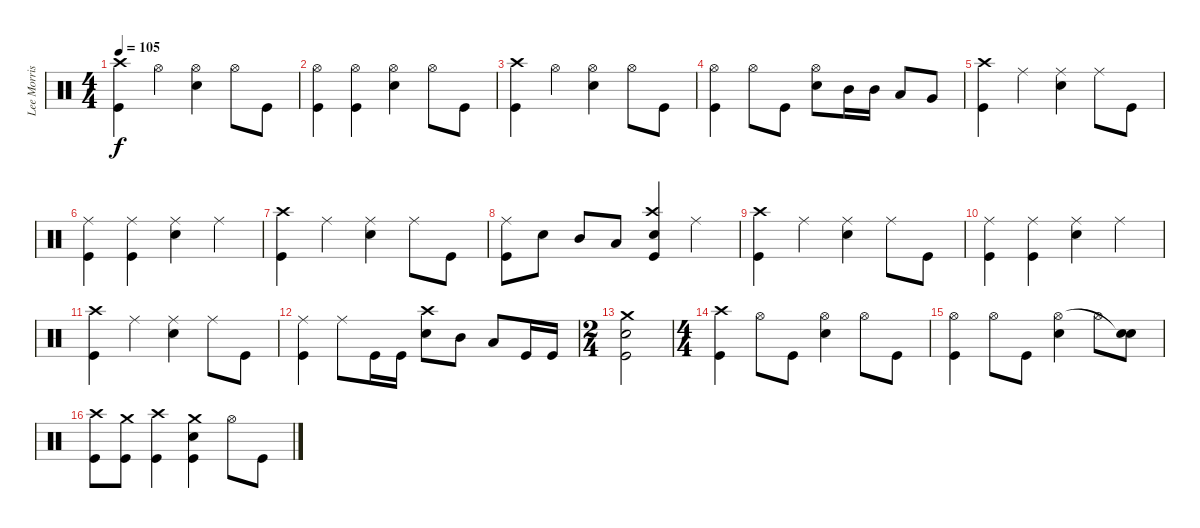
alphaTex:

\track ("Lee Morris" "Lee Morris") {instrument percussion}
\staff {score}
\articulation defaults
\ts (4 4)
\tempo 105
\clef neutral
\ks c
("Kick (hit)" "Crash high (hit)").4{dy f} "Hi-Hat (open)".4 ("Snare (hit) 2" "Hi-Hat (open)").4 "Hi-Hat (open)".8 "Kick (hit)".8 |
("Kick (hit)" "Hi-Hat (open)").4 ("Kick (hit)" "Hi-Hat (open)").4 ("Snare (hit) 2" "Hi-Hat (open)").4 "Hi-Hat (open)".8 "Kick (hit)".8 |
("Kick (hit)" "Crash high (hit)").4 "Hi-Hat (open)".4 ("Snare (hit) 2" "Hi-Hat (open)").4 "Hi-Hat (open)".8 "Kick (hit)".8 |
("Kick (hit)" "Hi-Hat (open)").4 "Hi-Hat (open)".8 "Kick (hit)".8 ("Snare (hit) 2" "Hi-Hat (open)").8 "Mid Tom (hit)".16 "Mid Tom (hit)".16 "Low Tom (hit)".8 "Very Low Tom (hit)".8 |
("Kick (hit)" "Crash high (hit)").4 "Ride (middle)".4 ("Snare (hit) 2" "Ride (middle)").4 "Ride (middle)".8 "Kick (hit)".8 |
("Kick (hit)" "Ride (middle)").4 ("Kick (hit)" "Ride (middle)").4 ("Snare (hit) 2" "Ride (middle)").4 "Ride (middle)".4 |
("Kick (hit)" "Crash high (hit)").4 "Ride (middle)".4 ("Snare (hit) 2" "Ride (middle)").4 "Ride (middle)".8 "Kick (hit)".8 |
("Kick (hit)" "Ride (middle)").8 "Snare (hit) 2".8 "Mid Tom (hit)".8 "Low Tom (hit)".8 ("Kick (hit)" "Snare (hit) 2" "Crash high (hit)").4 "Ride (middle)".4 |
("Kick (hit)" "Crash high (hit)").4 "Ride (middle)".4 ("Snare (hit) 2" "Ride (middle)").4 "Ride (middle)".8 "Kick (hit)".8 |
("Kick (hit)" "Ride (middle)").4 ("Kick (hit)" "Ride (middle)").4 ("Snare (hit) 2" "Ride (middle)").4 "Ride (middle)".4 |
("Kick (hit)" "Crash high (hit)").4 "Ride (middle)".4 ("Snare (hit) 2" "Ride (middle)").4 "Ride (middle)".8 "Kick (hit)".8 |
("Kick (hit)" "Ride (middle)").4 "Ride (middle)".8 "Kick (hit)".16 "Kick (hit)".16 ("Snare (hit) 2" "Crash high (hit)").8 "Mid Tom (hit)".8 "Low Tom (hit)".8 "Kick (hit)".16 "Kick (hit)".16 |
\ts (2 4)
("Kick (hit)" "Snare (hit) 2" "Crash medium (hit)").2 |
\ts (4 4)
("Kick (hit)" "Crash high (hit)").4 "Hi-Hat (open)".8 "Kick (hit)".8 ("Snare (hit) 2" "Hi-Hat (open)").4 "Hi-Hat (open)".8 "Kick (hit)".8 |
("Kick (hit)" "Hi-Hat (open)").4 "Hi-Hat (open)".8 "Kick (hit)".8 ("Snare (hit) 2" "Hi-Hat (open)").4 "Hi-Hat (open)".8 ("Snare (hit) 2" "Snare (hit)"{t}).8 |
("Kick (hit)" "Crash high (hit)").8 ("Kick (hit)" "Crash medium (hit)").8 ("Kick (hit)" "Crash high (hit)").4 ("Kick (hit)" "Snare (hit) 2" "Crash medium (hit)").4 "Hi-Hat (open)".8 "Kick (hit)".8
